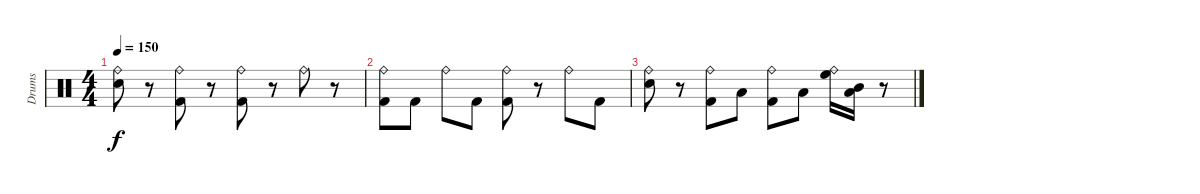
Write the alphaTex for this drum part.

\track ("Drums" "Drums") {instrument percussion}
\staff {score}
\articulation defaults
\ts (4 4)
\tempo 150
\clef neutral
\ks c
("Ride (bell)" "Electric Snare (hit)").8{dy f} r.8 ("Ride (bell)" "Kick (hit) 2").8 r.8 ("Ride (bell)" "Kick (hit) 2").8 r.8 "Ride (bell)".8 r.8 |
("Ride (bell)" "Kick (hit) 2").8 "Kick (hit) 2".8 "Ride (bell)".8 "Kick (hit) 2".8 ("Ride (bell)" "Kick (hit) 2").8 r.8 "Ride (bell)".8 "Kick (hit) 2".8 |
("Ride (bell)" "Electric Snare (hit)").8 r.8 ("Ride (bell)" "Kick (hit) 2").8 "Low Tom (hit)".8 ("Ride (bell)" "Kick (hit) 2").8 "Low Floor Tom (hit)".8 ("Ride (bell)" "High Floor Tom (hit)").16 ("Mid Tom (hit)" "Low Tom (hit)").16 r.8
